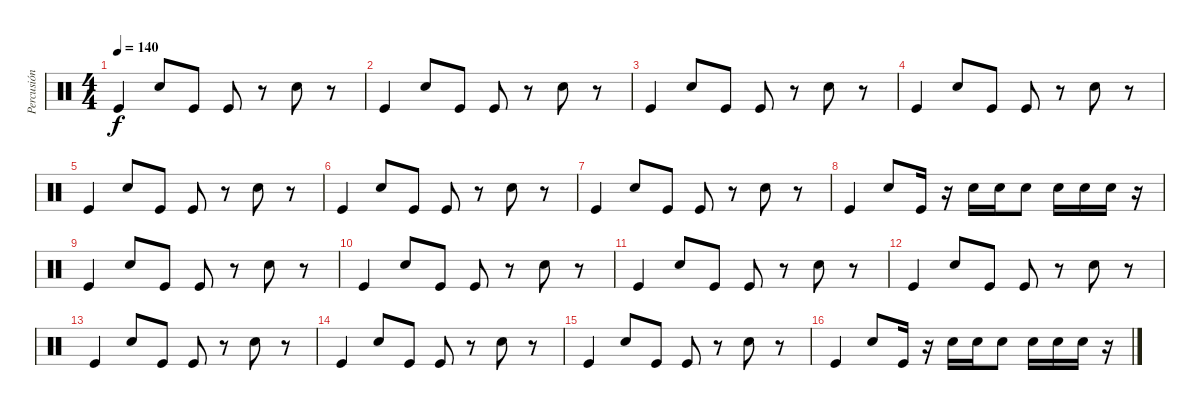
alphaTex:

\track ("Percusión" "Percusión") {instrument percussion}
\staff {score}
\articulation defaults
\ts (4 4)
\tempo 140
\clef neutral
\ks c "Kick (hit)".4{dy f} "Snare (hit) 2".8 "Kick (hit)".8 "Kick (hit)".8
r.8 "Snare (hit) 2".8 r.8 |
"Kick (hit)".4 "Snare (hit) 2".8 "Kick (hit)".8 "Kick (hit)".8 r.8 "Snare (hit) 2".8 r.8 |
"Kick (hit)".4 "Snare (hit) 2".8 "Kick (hit)".8 "Kick (hit)".8 r.8 "Snare (hit) 2".8 r.8 |
"Kick (hit)".4 "Snare (hit) 2".8 "Kick (hit)".8 "Kick (hit)".8 r.8 "Snare (hit) 2".8 r.8 |
"Kick (hit)".4 "Snare (hit) 2".8 "Kick (hit)".8 "Kick (hit)".8 r.8 "Snare (hit) 2".8 r.8 |
"Kick (hit)".4 "Snare (hit) 2".8 "Kick (hit)".8 "Kick (hit)".8 r.8 "Snare (hit) 2".8 r.8 |
"Kick (hit)".4 "Snare (hit) 2".8 "Kick (hit)".8 "Kick (hit)".8 r.8 "Snare (hit) 2".8 r.8 |
"Kick (hit)".4 "Snare (hit) 2".8 "Kick (hit)".16 r.16 "Snare (hit) 2".16 "Snare (hit) 2".16 "Snare (hit) 2".8 "Snare (hit) 2".16 "Snare (hit) 2".16 "Snare (hit) 2".16 r.16 |
"Kick (hit)".4 "Snare (hit) 2".8 "Kick (hit)".8 "Kick (hit)".8 r.8 "Snare (hit) 2".8 r.8 |
"Kick (hit)".4 "Snare (hit) 2".8 "Kick (hit)".8 "Kick (hit)".8 r.8 "Snare (hit) 2".8 r.8 |
"Kick (hit)".4 "Snare (hit) 2".8 "Kick (hit)".8 "Kick (hit)".8 r.8 "Snare (hit) 2".8 r.8 |
"Kick (hit)".4 "Snare (hit) 2".8 "Kick (hit)".8 "Kick (hit)".8 r.8 "Snare (hit) 2".8 r.8 |
"Kick (hit)".4 "Snare (hit) 2".8 "Kick (hit)".8 "Kick (hit)".8 r.8 "Snare (hit) 2".8 r.8 |
"Kick (hit)".4 "Snare (hit) 2".8 "Kick (hit)".8 "Kick (hit)".8 r.8 "Snare (hit) 2".8 r.8 |
"Kick (hit)".4 "Snare (hit) 2".8 "Kick (hit)".8 "Kick (hit)".8 r.8 "Snare (hit) 2".8 r.8 |
"Kick (hit)".4 "Snare (hit) 2".8 "Kick (hit)".16 r.16 "Snare (hit) 2".16 "Snare (hit) 2".16 "Snare (hit) 2".8 "Snare (hit) 2".16 "Snare (hit) 2".16 "Snare (hit) 2".16 r.16
